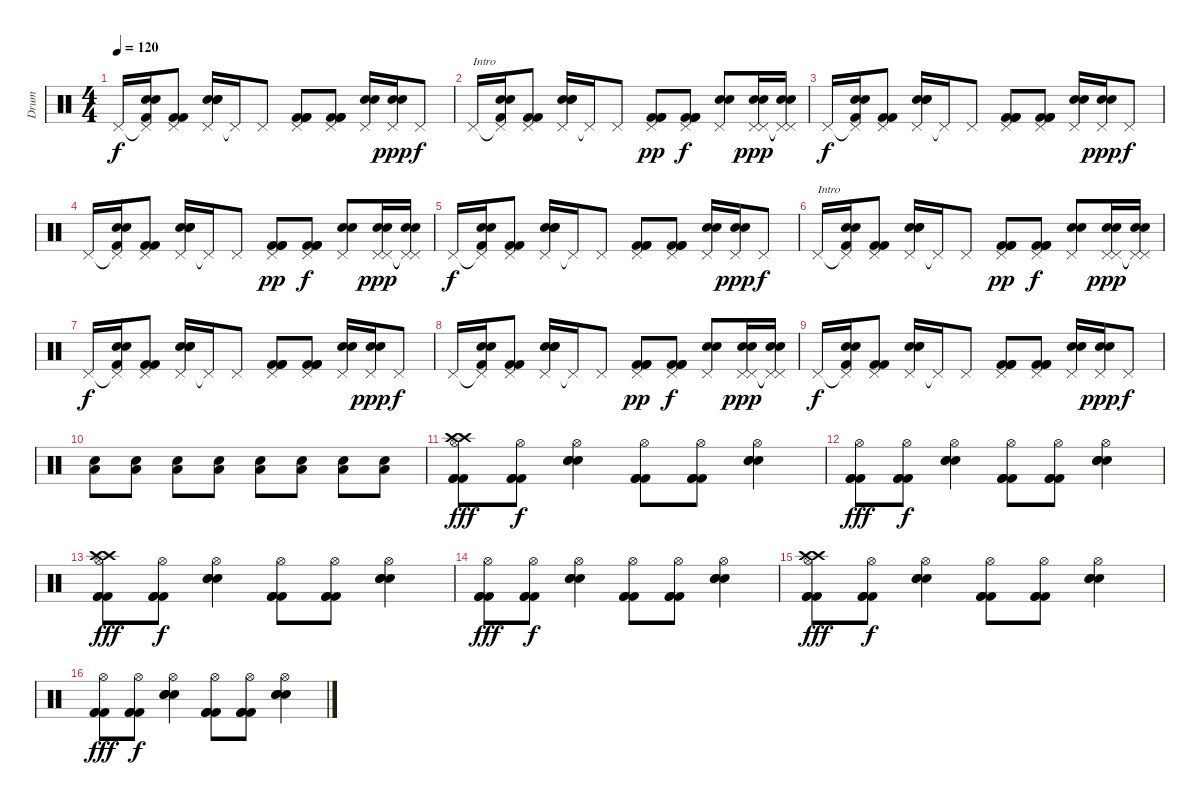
\track ("Drum" "Drum") {instrument percussion}
\staff {score}
\articulation defaults
\ts (4 4)
\tempo 120
\clef neutral
\ks c "Pedal Hi-Hat (hit)".16{dy f}
("Pedal Hi-Hat (hit)"{t} "Snare (hit) 2" "Snare (hit) 2" "Kick (hit) 2").16 ("Pedal Hi-Hat (hit)" "Kick (hit) 2" "Kick (hit) 2").8 ("Pedal Hi-Hat (hit)" "Snare (hit) 2" "Snare (hit) 2" "Snare (hit) 2").16 "Pedal Hi-Hat (hit)"{t}.16 "Pedal Hi-Hat (hit)".8 ("Pedal Hi-Hat (hit)" "Kick (hit) 2" "Kick (hit) 2" "Kick (hit) 2").8 ("Pedal Hi-Hat (hit)" "Kick (hit) 2" "Kick (hit) 2" "Kick (hit) 2").8 ("Pedal Hi-Hat (hit)" "Snare (hit) 2" "Snare (hit) 2").16 ("Pedal Hi-Hat (hit)" "Snare (hit) 2" "Snare (hit) 2").16{dy ppp} "Pedal Hi-Hat (hit)".8{dy f} |
"Pedal Hi-Hat (hit)".16{txt "Intro"} ("Pedal Hi-Hat (hit)"{t} "Snare (hit) 2" "Snare (hit) 2" "Kick (hit) 2").16 ("Pedal Hi-Hat (hit)" "Kick (hit) 2" "Kick (hit) 2").8 ("Pedal Hi-Hat (hit)" "Snare (hit) 2" "Snare (hit) 2" "Snare (hit) 2").16 "Pedal Hi-Hat (hit)"{t}.16 "Pedal Hi-Hat (hit)".8 ("Pedal Hi-Hat (hit)" "Kick (hit) 2" "Kick (hit) 2" "Kick (hit) 2").8{dy pp} ("Pedal Hi-Hat (hit)" "Kick (hit) 2" "Kick (hit) 2" "Kick (hit) 2").8{dy f} ("Pedal Hi-Hat (hit)" "Snare (hit) 2" "Snare (hit) 2").8 ("Pedal Hi-Hat (hit)" "Pedal Hi-Hat (hit)" "Snare (hit) 2" "Snare (hit) 2").16{dy ppp} ("Pedal Hi-Hat (hit)"{t} "Pedal Hi-Hat (hit)"{t} "Snare (hit) 2" "Snare (hit) 2").16 |
"Pedal Hi-Hat (hit)".16{dy f} ("Pedal Hi-Hat (hit)"{t} "Snare (hit) 2" "Snare (hit) 2" "Kick (hit) 2").16 ("Pedal Hi-Hat (hit)" "Kick (hit) 2" "Kick (hit) 2").8 ("Pedal Hi-Hat (hit)" "Snare (hit) 2" "Snare (hit) 2" "Snare (hit) 2").16 "Pedal Hi-Hat (hit)"{t}.16 "Pedal Hi-Hat (hit)".8 ("Pedal Hi-Hat (hit)" "Kick (hit) 2" "Kick (hit) 2" "Kick (hit) 2").8 ("Pedal Hi-Hat (hit)" "Kick (hit) 2" "Kick (hit) 2" "Kick (hit) 2").8 ("Pedal Hi-Hat (hit)" "Snare (hit) 2" "Snare (hit) 2").16 ("Pedal Hi-Hat (hit)" "Snare (hit) 2" "Snare (hit) 2").16{dy ppp} "Pedal Hi-Hat (hit)".8{dy f} |
"Pedal Hi-Hat (hit)".16 ("Pedal Hi-Hat (hit)"{t} "Snare (hit) 2" "Snare (hit) 2" "Kick (hit) 2").16 ("Pedal Hi-Hat (hit)" "Kick (hit) 2" "Kick (hit) 2").8 ("Pedal Hi-Hat (hit)" "Snare (hit) 2" "Snare (hit) 2" "Snare (hit) 2").16 "Pedal Hi-Hat (hit)"{t}.16 "Pedal Hi-Hat (hit)".8 ("Pedal Hi-Hat (hit)" "Kick (hit) 2" "Kick (hit) 2" "Kick (hit) 2").8{dy pp} ("Pedal Hi-Hat (hit)" "Kick (hit) 2" "Kick (hit) 2" "Kick (hit) 2").8{dy f} ("Pedal Hi-Hat (hit)" "Snare (hit) 2" "Snare (hit) 2").8 ("Pedal Hi-Hat (hit)" "Pedal Hi-Hat (hit)" "Snare (hit) 2" "Snare (hit) 2").16{dy ppp} ("Pedal Hi-Hat (hit)"{t} "Pedal Hi-Hat (hit)"{t} "Snare (hit) 2" "Snare (hit) 2").16 |
"Pedal Hi-Hat (hit)".16{dy f} ("Pedal Hi-Hat (hit)"{t} "Snare (hit) 2" "Snare (hit) 2" "Kick (hit) 2").16 ("Pedal Hi-Hat (hit)" "Kick (hit) 2" "Kick (hit) 2").8 ("Pedal Hi-Hat (hit)" "Snare (hit) 2" "Snare (hit) 2" "Snare (hit) 2").16 "Pedal Hi-Hat (hit)"{t}.16 "Pedal Hi-Hat (hit)".8 ("Pedal Hi-Hat (hit)" "Kick (hit) 2" "Kick (hit) 2" "Kick (hit) 2").8 ("Pedal Hi-Hat (hit)" "Kick (hit) 2" "Kick (hit) 2" "Kick (hit) 2").8 ("Pedal Hi-Hat (hit)" "Snare (hit) 2" "Snare (hit) 2").16 ("Pedal Hi-Hat (hit)" "Snare (hit) 2" "Snare (hit) 2").16{dy ppp} "Pedal Hi-Hat (hit)".8{dy f} |
"Pedal Hi-Hat (hit)".16{txt "Intro"} ("Pedal Hi-Hat (hit)"{t} "Snare (hit) 2" "Snare (hit) 2" "Kick (hit) 2").16 ("Pedal Hi-Hat (hit)" "Kick (hit) 2" "Kick (hit) 2").8 ("Pedal Hi-Hat (hit)" "Snare (hit) 2" "Snare (hit) 2" "Snare (hit) 2").16 "Pedal Hi-Hat (hit)"{t}.16 "Pedal Hi-Hat (hit)".8 ("Pedal Hi-Hat (hit)" "Kick (hit) 2" "Kick (hit) 2" "Kick (hit) 2").8{dy pp} ("Pedal Hi-Hat (hit)" "Kick (hit) 2" "Kick (hit) 2" "Kick (hit) 2").8{dy f} ("Pedal Hi-Hat (hit)" "Snare (hit) 2" "Snare (hit) 2").8 ("Pedal Hi-Hat (hit)" "Pedal Hi-Hat (hit)" "Snare (hit) 2" "Snare (hit) 2").16{dy ppp} ("Pedal Hi-Hat (hit)"{t} "Pedal Hi-Hat (hit)"{t} "Snare (hit) 2" "Snare (hit) 2").16 |
"Pedal Hi-Hat (hit)".16{dy f} ("Pedal Hi-Hat (hit)"{t} "Snare (hit) 2" "Snare (hit) 2" "Kick (hit) 2").16 ("Pedal Hi-Hat (hit)" "Kick (hit) 2" "Kick (hit) 2").8 ("Pedal Hi-Hat (hit)" "Snare (hit) 2" "Snare (hit) 2" "Snare (hit) 2").16 "Pedal Hi-Hat (hit)"{t}.16 "Pedal Hi-Hat (hit)".8 ("Pedal Hi-Hat (hit)" "Kick (hit) 2" "Kick (hit) 2" "Kick (hit) 2").8 ("Pedal Hi-Hat (hit)" "Kick (hit) 2" "Kick (hit) 2" "Kick (hit) 2").8 ("Pedal Hi-Hat (hit)" "Snare (hit) 2" "Snare (hit) 2").16 ("Pedal Hi-Hat (hit)" "Snare (hit) 2" "Snare (hit) 2").16{dy ppp} "Pedal Hi-Hat (hit)".8{dy f} |
"Pedal Hi-Hat (hit)".16 ("Pedal Hi-Hat (hit)"{t} "Snare (hit) 2" "Snare (hit) 2" "Kick (hit) 2").16 ("Pedal Hi-Hat (hit)" "Kick (hit) 2" "Kick (hit) 2").8 ("Pedal Hi-Hat (hit)" "Snare (hit) 2" "Snare (hit) 2" "Snare (hit) 2").16 "Pedal Hi-Hat (hit)"{t}.16 "Pedal Hi-Hat (hit)".8 ("Pedal Hi-Hat (hit)" "Kick (hit) 2" "Kick (hit) 2" "Kick (hit) 2").8{dy pp} ("Pedal Hi-Hat (hit)" "Kick (hit) 2" "Kick (hit) 2" "Kick (hit) 2").8{dy f} ("Pedal Hi-Hat (hit)" "Snare (hit) 2" "Snare (hit) 2").8 ("Pedal Hi-Hat (hit)" "Pedal Hi-Hat (hit)" "Snare (hit) 2" "Snare (hit) 2").16{dy ppp} ("Pedal Hi-Hat (hit)"{t} "Pedal Hi-Hat (hit)"{t} "Snare (hit) 2" "Snare (hit) 2").16 |
"Pedal Hi-Hat (hit)".16{dy f} ("Pedal Hi-Hat (hit)"{t} "Snare (hit) 2" "Snare (hit) 2" "Kick (hit) 2").16 ("Pedal Hi-Hat (hit)" "Kick (hit) 2" "Kick (hit) 2").8 ("Pedal Hi-Hat (hit)" "Snare (hit) 2" "Snare (hit) 2" "Snare (hit) 2").16 "Pedal Hi-Hat (hit)"{t}.16 "Pedal Hi-Hat (hit)".8 ("Pedal Hi-Hat (hit)" "Kick (hit) 2" "Kick (hit) 2" "Kick (hit) 2").8 ("Pedal Hi-Hat (hit)" "Kick (hit) 2" "Kick (hit) 2" "Kick (hit) 2").8 ("Pedal Hi-Hat (hit)" "Snare (hit) 2" "Snare (hit) 2").16 ("Pedal Hi-Hat (hit)" "Snare (hit) 2" "Snare (hit) 2").16{dy ppp} "Pedal Hi-Hat (hit)".8{dy f} |
("Low Floor Tom (hit)" "Snare (hit) 2").8 ("Low Floor Tom (hit)" "Snare (hit) 2").8 ("Low Floor Tom (hit)" "Snare (hit) 2").8 ("Low Floor Tom (hit)" "Snare (hit) 2").8 ("Low Floor Tom (hit)" "Snare (hit) 2").8 ("Low Floor Tom (hit)" "Snare (hit) 2").8 ("Low Floor Tom (hit)" "Snare (hit) 2").8 ("Low Floor Tom (hit)" "Snare (hit) 2").8 |
("Hi-Hat (open)" "Crash high (hit)" "Crash high (hit)" "Kick (hit) 2" "Kick (hit) 2" "Kick (hit) 2").8{dy fff} ("Hi-Hat (open)" "Kick (hit) 2" "Kick (hit) 2" "Kick (hit) 2").8{dy f} ("Hi-Hat (open)" "Snare (hit) 2" "Snare (hit) 2" "Snare (hit) 2").4 ("Hi-Hat (open)" "Kick (hit) 2" "Kick (hit) 2" "Kick (hit) 2").8 ("Hi-Hat (open)" "Kick (hit) 2" "Kick (hit) 2" "Kick (hit) 2").8 ("Hi-Hat (open)" "Snare (hit) 2" "Snare (hit) 2" "Snare (hit) 2").4 |
("Hi-Hat (open)" "Kick (hit) 2" "Kick (hit) 2" "Kick (hit) 2").8{dy fff} ("Hi-Hat (open)" "Kick (hit) 2" "Kick (hit) 2" "Kick (hit) 2").8{dy f} ("Hi-Hat (open)" "Snare (hit) 2" "Snare (hit) 2" "Snare (hit) 2").4 ("Hi-Hat (open)" "Kick (hit) 2" "Kick (hit) 2" "Kick (hit) 2").8 ("Hi-Hat (open)" "Kick (hit) 2" "Kick (hit) 2" "Kick (hit) 2").8 ("Hi-Hat (open)" "Snare (hit) 2" "Snare (hit) 2" "Snare (hit) 2").4 |
("Hi-Hat (open)" "Crash high (hit)" "Crash high (hit)" "Kick (hit) 2" "Kick (hit) 2" "Kick (hit) 2").8{dy fff} ("Hi-Hat (open)" "Kick (hit) 2" "Kick (hit) 2" "Kick (hit) 2").8{dy f} ("Hi-Hat (open)" "Snare (hit) 2" "Snare (hit) 2" "Snare (hit) 2").4 ("Hi-Hat (open)" "Kick (hit) 2" "Kick (hit) 2" "Kick (hit) 2").8 ("Hi-Hat (open)" "Kick (hit) 2" "Kick (hit) 2" "Kick (hit) 2").8 ("Hi-Hat (open)" "Snare (hit) 2" "Snare (hit) 2" "Snare (hit) 2").4 |
("Hi-Hat (open)" "Kick (hit) 2" "Kick (hit) 2" "Kick (hit) 2").8{dy fff} ("Hi-Hat (open)" "Kick (hit) 2" "Kick (hit) 2" "Kick (hit) 2").8{dy f} ("Hi-Hat (open)" "Snare (hit) 2" "Snare (hit) 2" "Snare (hit) 2").4 ("Hi-Hat (open)" "Kick (hit) 2" "Kick (hit) 2" "Kick (hit) 2").8 ("Hi-Hat (open)" "Kick (hit) 2" "Kick (hit) 2" "Kick (hit) 2").8 ("Hi-Hat (open)" "Snare (hit) 2" "Snare (hit) 2" "Snare (hit) 2").4 |
("Hi-Hat (open)" "Crash high (hit)" "Crash high (hit)" "Kick (hit) 2" "Kick (hit) 2" "Kick (hit) 2").8{dy fff} ("Hi-Hat (open)" "Kick (hit) 2" "Kick (hit) 2" "Kick (hit) 2").8{dy f} ("Hi-Hat (open)" "Snare (hit) 2" "Snare (hit) 2" "Snare (hit) 2").4 ("Hi-Hat (open)" "Kick (hit) 2" "Kick (hit) 2" "Kick (hit) 2").8 ("Hi-Hat (open)" "Kick (hit) 2" "Kick (hit) 2" "Kick (hit) 2").8 ("Hi-Hat (open)" "Snare (hit) 2" "Snare (hit) 2" "Snare (hit) 2").4 |
("Hi-Hat (open)" "Kick (hit) 2" "Kick (hit) 2" "Kick (hit) 2").8{dy fff} ("Hi-Hat (open)" "Kick (hit) 2" "Kick (hit) 2" "Kick (hit) 2").8{dy f} ("Hi-Hat (open)" "Snare (hit) 2" "Snare (hit) 2" "Snare (hit) 2").4 ("Hi-Hat (open)" "Kick (hit) 2" "Kick (hit) 2" "Kick (hit) 2").8 ("Hi-Hat (open)" "Kick (hit) 2" "Kick (hit) 2" "Kick (hit) 2").8 ("Hi-Hat (open)" "Snare (hit) 2" "Snare (hit) 2" "Snare (hit) 2").4
